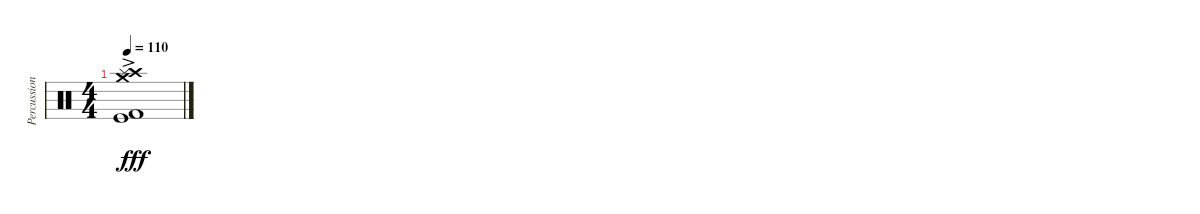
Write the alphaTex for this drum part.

\track ("Percussion" "Percussion") {instrument percussion}
\staff {score}
\articulation defaults
\ts (4 4)
\tempo 110
\clef neutral
\ks c
("Kick (hit)"{ac} "Kick (hit) 2"{ac} "Crash medium (hit)"{ac} "Crash high (hit)"{ac} "Splash (hit)"{ac}).1{dy fff}
